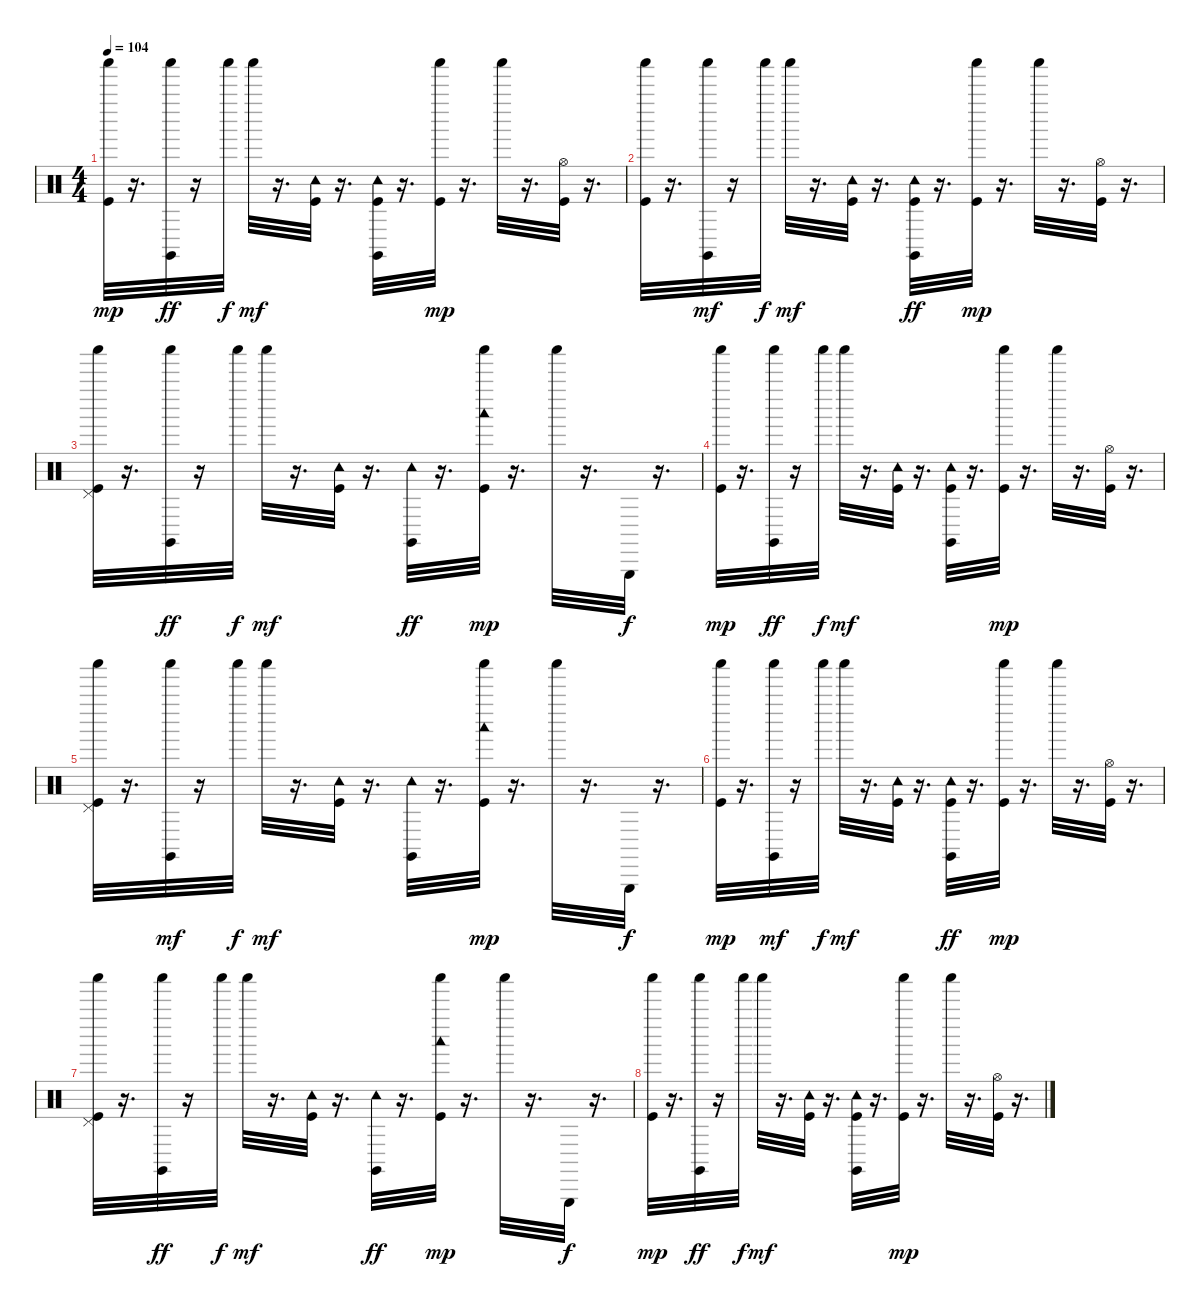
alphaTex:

\track "" {instrument percussion}
\staff {score}
\articulation defaults
\ts (4 4)
\tempo 104
\clef neutral
\ks c
("Shaker (hit)" "Kick (hit)").32{dy mp} r.16{d} ("Shaker (hit)" "Claves (hit)").32{dy ff} r.16 "Shaker (hit)".32{dy f} "Shaker (hit)".32{dy mf} r.16{d} ("Kick (hit)" "Tambourine (hit)").32 r.16{d} ("Claves (hit)" "Tambourine (hit)" "Kick (hit)").32 r.16{d} ("Shaker (hit)" "Kick (hit)").32{dy mp} r.16{d} "Shaker (hit)".32 r.16{d} ("Kick (hit)" "Hi-Hat (open)").32 r.16{d} |
("Shaker (hit)" "Kick (hit)").32 r.16{d} ("Claves (hit)" "Shaker (hit)").32{dy mf} r.16 "Shaker (hit)".32{dy f} "Shaker (hit)".32{dy mf} r.16{d} ("Tambourine (hit)" "Kick (hit)").32 r.16{d} ("Tambourine (hit)" "Claves (hit)" "Kick (hit)").32{dy ff} r.16{d} ("Kick (hit)" "Shaker (hit)").32{dy mp} r.16{d} "Shaker (hit)".32 r.16{d} ("Kick (hit)" "Hi-Hat (open)").32 r.16{d} |
("Kick (hit)" "Pedal Hi-Hat (hit)" "Shaker (hit)").32 r.16{d} ("Shaker (hit)" "Claves (hit)").32{dy ff} r.16 "Shaker (hit)".32{dy f} "Shaker (hit)".32{dy mf} r.16{d} ("Tambourine (hit)" "Kick (hit)").32 r.16{d} ("Tambourine (hit)" "Claves (hit)").32{dy ff} r.16{d} ("Kick (hit)" "Woodblock low (hit)" "Shaker (hit)").32{dy mp} r.16{d} "Shaker (hit)".32 r.16{d} "Triangle (hit)".32{dy f} r.16{d} |
("Shaker (hit)" "Kick (hit)").32{dy mp} r.16{d} ("Shaker (hit)" "Claves (hit)").32{dy ff} r.16 "Shaker (hit)".32{dy f} "Shaker (hit)".32{dy mf} r.16{d} ("Kick (hit)" "Tambourine (hit)").32 r.16{d} ("Kick (hit)" "Claves (hit)" "Tambourine (hit)").32 r.16{d} ("Kick (hit)" "Shaker (hit)").32{dy mp} r.16{d} "Shaker (hit)".32 r.16{d} ("Hi-Hat (open)" "Kick (hit)").32 r.16{d} |
("Pedal Hi-Hat (hit)" "Kick (hit)" "Shaker (hit)").32 r.16{d} ("Claves (hit)" "Shaker (hit)").32{dy mf} r.16 "Shaker (hit)".32{dy f} "Shaker (hit)".32{dy mf} r.16{d} ("Kick (hit)" "Tambourine (hit)").32 r.16{d} ("Claves (hit)" "Tambourine (hit)").32 r.16{d} ("Kick (hit)" "Woodblock low (hit)" "Shaker (hit)").32{dy mp} r.16{d} "Shaker (hit)".32 r.16{d} "Triangle (hit)".32{dy f} r.16{d} |
("Shaker (hit)" "Kick (hit)").32{dy mp} r.16{d} ("Claves (hit)" "Shaker (hit)").32{dy mf} r.16 "Shaker (hit)".32{dy f} "Shaker (hit)".32{dy mf} r.16{d} ("Kick (hit)" "Tambourine (hit)").32 r.16{d} ("Tambourine (hit)" "Claves (hit)" "Kick (hit)").32{dy ff} r.16{d} ("Kick (hit)" "Shaker (hit)").32{dy mp} r.16{d} "Shaker (hit)".32 r.16{d} ("Hi-Hat (open)" "Kick (hit)").32 r.16{d} |
("Kick (hit)" "Pedal Hi-Hat (hit)" "Shaker (hit)").32 r.16{d} ("Shaker (hit)" "Claves (hit)").32{dy ff} r.16 "Shaker (hit)".32{dy f} "Shaker (hit)".32{dy mf} r.16{d} ("Tambourine (hit)" "Kick (hit)").32 r.16{d} ("Tambourine (hit)" "Claves (hit)").32{dy ff} r.16{d} ("Woodblock low (hit)" "Shaker (hit)" "Kick (hit)").32{dy mp} r.16{d} "Shaker (hit)".32 r.16{d} "Triangle (hit)".32{dy f} r.16{d} |
("Shaker (hit)" "Kick (hit)").32{dy mp} r.16{d} ("Shaker (hit)" "Claves (hit)").32{dy ff} r.16 "Shaker (hit)".32{dy f} "Shaker (hit)".32{dy mf} r.16{d} ("Kick (hit)" "Tambourine (hit)").32 r.16{d} ("Kick (hit)" "Claves (hit)" "Tambourine (hit)").32 r.16{d} ("Shaker (hit)" "Kick (hit)").32{dy mp} r.16{d} "Shaker (hit)".32 r.16{d} ("Kick (hit)" "Hi-Hat (open)").32 r.16{d}
